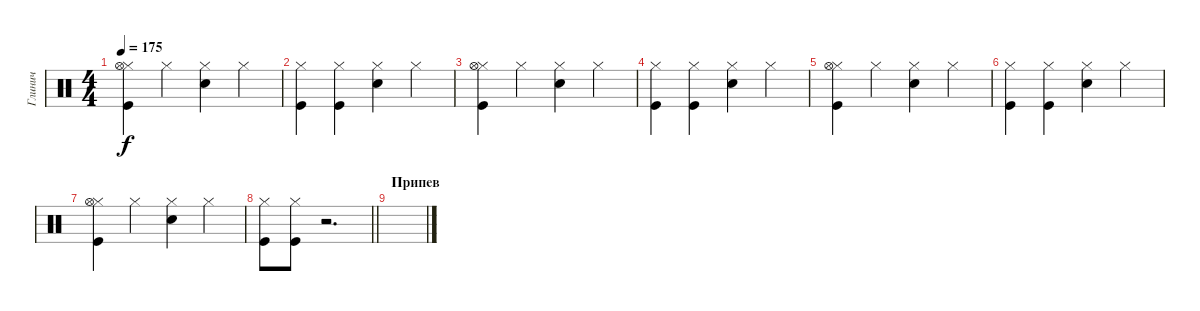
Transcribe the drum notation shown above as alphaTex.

\track ("Глинич" "Глинич") {instrument percussion}
\staff {score}
\articulation defaults
\ts (4 4)
\tempo 175
\clef neutral
\ks c
("Hi-Hat (closed)" "Kick (hit)" "Hi-Hat (open)").4{dy f} "Hi-Hat (closed)".4 ("Hi-Hat (closed)" "Snare (hit) 2").4 "Hi-Hat (closed)".4 |
("Hi-Hat (closed)" "Kick (hit)").4 ("Hi-Hat (closed)" "Kick (hit)").4 ("Hi-Hat (closed)" "Snare (hit) 2").4 "Hi-Hat (closed)".4 |
("Hi-Hat (closed)" "Kick (hit)" "Hi-Hat (open)").4 "Hi-Hat (closed)".4 ("Hi-Hat (closed)" "Snare (hit) 2").4 "Hi-Hat (closed)".4 |
("Hi-Hat (closed)" "Kick (hit)").4 ("Hi-Hat (closed)" "Kick (hit)").4 ("Hi-Hat (closed)" "Snare (hit) 2").4 "Hi-Hat (closed)".4 |
("Hi-Hat (closed)" "Kick (hit)" "Hi-Hat (open)").4 "Hi-Hat (closed)".4 ("Hi-Hat (closed)" "Snare (hit) 2").4 "Hi-Hat (closed)".4 |
("Hi-Hat (closed)" "Kick (hit)").4 ("Hi-Hat (closed)" "Kick (hit)").4 ("Hi-Hat (closed)" "Snare (hit) 2").4 "Hi-Hat (closed)".4 |
("Hi-Hat (closed)" "Kick (hit)" "Hi-Hat (open)").4 "Hi-Hat (closed)".4 ("Hi-Hat (closed)" "Snare (hit) 2").4 "Hi-Hat (closed)".4 |
\barLineRight lightlight
("Hi-Hat (closed)" "Kick (hit)").8 ("Hi-Hat (closed)" "Kick (hit)").8 r.2{d} |
\section ("" "Припев")
